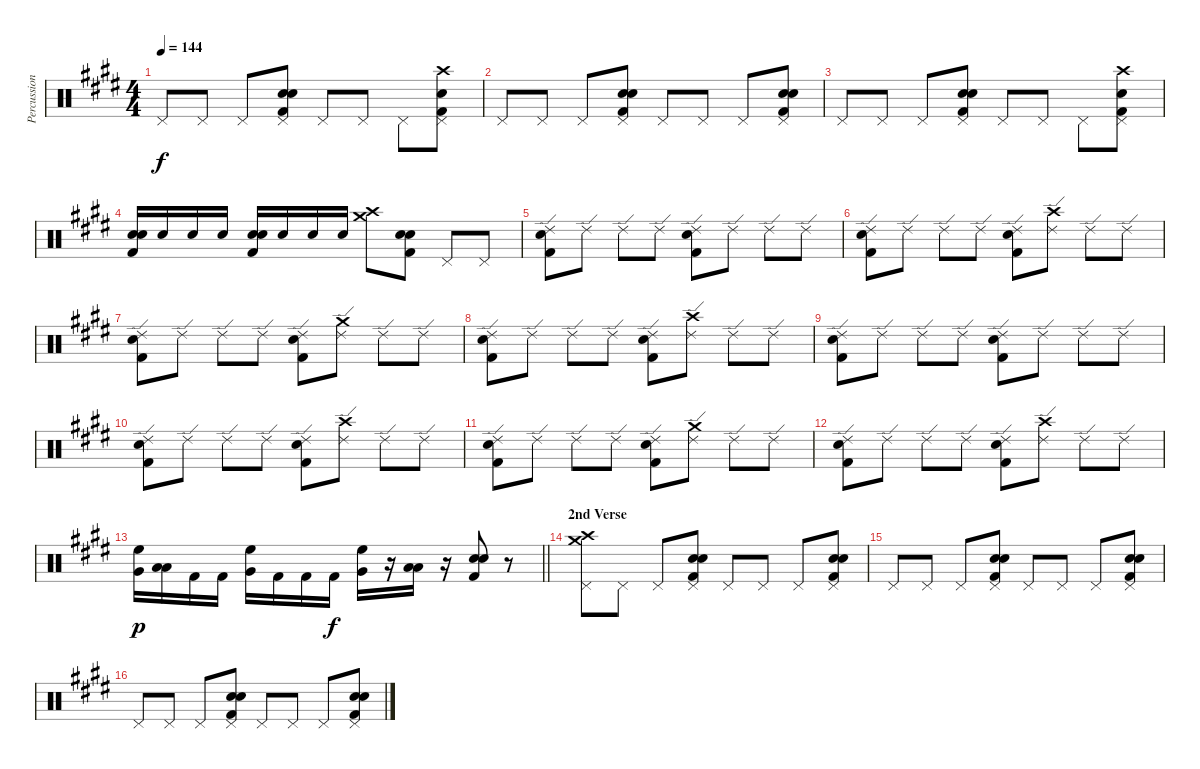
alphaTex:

\track ("Percussion" "Percussion") {instrument percussion}
\staff {score}
\articulation defaults
\ts (4 4)
\tempo 144
\clef neutral
\ks c#minor "Pedal Hi-Hat (hit)".8{dy f} "Pedal Hi-Hat (hit)".8 "Pedal Hi-Hat (hit)".8
("Pedal Hi-Hat (hit)" "Snare (hit) 2" "Snare (hit) 2" "Kick (hit) 2").8 "Pedal Hi-Hat (hit)".8 "Pedal Hi-Hat (hit)".8 "Pedal Hi-Hat (hit)".8 ("Pedal Hi-Hat (hit)" "Snare (hit) 2" "Crash high (hit)" "Kick (hit) 2").8 |
\ks e "Pedal Hi-Hat (hit)".8 "Pedal Hi-Hat (hit)".8 "Pedal Hi-Hat (hit)".8
("Pedal Hi-Hat (hit)" "Snare (hit) 2" "Snare (hit) 2" "Kick (hit) 2").8 "Pedal Hi-Hat (hit)".8 "Pedal Hi-Hat (hit)".8 "Pedal Hi-Hat (hit)".8 ("Pedal Hi-Hat (hit)" "Snare (hit) 2" "Snare (hit) 2" "Kick (hit) 2").8 |
\ks c#minor "Pedal Hi-Hat (hit)".8 "Pedal Hi-Hat (hit)".8 "Pedal Hi-Hat (hit)".8
("Pedal Hi-Hat (hit)" "Snare (hit) 2" "Snare (hit) 2" "Kick (hit) 2").8 "Pedal Hi-Hat (hit)".8 "Pedal Hi-Hat (hit)".8 "Pedal Hi-Hat (hit)".8 ("Pedal Hi-Hat (hit)" "Snare (hit) 2" "Crash high (hit)" "Kick (hit) 2").8 |
("Snare (hit) 2" "Snare (hit) 2" "Kick (hit) 2").16 "Snare (hit) 2".16 "Snare (hit) 2".16 "Snare (hit) 2".16 ("Snare (hit) 2" "Snare (hit) 2" "Kick (hit) 2").16 "Snare (hit) 2".16 "Snare (hit) 2".16 "Snare (hit) 2".16 ("Crash high (hit)" "Crash medium (hit)").8 ("Snare (hit) 2" "Snare (hit) 2" "Kick (hit) 2").8 "Pedal Hi-Hat (hit)".8 "Pedal Hi-Hat (hit)".8 |
\ks e
("Ride (edge) 2" "Snare (hit) 2" "Kick (hit) 2").8 "Ride (edge) 2".8 "Ride (edge) 2".8 "Ride (edge) 2".8 ("Ride (edge) 2" "Snare (hit) 2" "Kick (hit) 2").8 "Ride (edge) 2".8 "Ride (edge) 2".8 "Ride (edge) 2".8 |
\ks c#minor
("Ride (edge) 2" "Snare (hit) 2" "Kick (hit) 2").8 "Ride (edge) 2".8 "Ride (edge) 2".8 "Ride (edge) 2".8 ("Ride (edge) 2" "Snare (hit) 2" "Kick (hit) 2").8 ("Ride (edge) 2" "Crash high (hit)").8 "Ride (edge) 2".8 "Ride (edge) 2".8 |
("Ride (edge) 2" "Snare (hit) 2" "Kick (hit) 2").8 "Ride (edge) 2".8 "Ride (edge) 2".8 "Ride (edge) 2".8 ("Ride (edge) 2" "Snare (hit) 2" "Kick (hit) 2").8 ("Ride (edge) 2" "Crash medium (hit)").8 "Ride (edge) 2".8 "Ride (edge) 2".8 |
("Ride (edge) 2" "Snare (hit) 2" "Kick (hit) 2").8 "Ride (edge) 2".8 "Ride (edge) 2".8 "Ride (edge) 2".8 ("Ride (edge) 2" "Snare (hit) 2" "Kick (hit) 2").8 ("Ride (edge) 2" "Crash high (hit)").8 "Ride (edge) 2".8 "Ride (edge) 2".8 |
\ks e
("Ride (edge) 2" "Snare (hit) 2" "Kick (hit) 2").8 "Ride (edge) 2".8 "Ride (edge) 2".8 "Ride (edge) 2".8 ("Ride (edge) 2" "Snare (hit) 2" "Kick (hit) 2").8 "Ride (edge) 2".8 "Ride (edge) 2".8 "Ride (edge) 2".8 |
\ks c#minor
("Ride (edge) 2" "Snare (hit) 2" "Kick (hit) 2").8 "Ride (edge) 2".8 "Ride (edge) 2".8 "Ride (edge) 2".8 ("Ride (edge) 2" "Snare (hit) 2" "Kick (hit) 2").8 ("Ride (edge) 2" "Crash high (hit)").8 "Ride (edge) 2".8 "Ride (edge) 2".8 |
("Ride (edge) 2" "Snare (hit) 2" "Kick (hit) 2").8 "Ride (edge) 2".8 "Ride (edge) 2".8 "Ride (edge) 2".8 ("Ride (edge) 2" "Snare (hit) 2" "Kick (hit) 2").8 ("Ride (edge) 2" "Crash medium (hit)").8 "Ride (edge) 2".8 "Ride (edge) 2".8 |
("Ride (edge) 2" "Snare (hit) 2" "Kick (hit) 2").8 "Ride (edge) 2".8 "Ride (edge) 2".8 "Ride (edge) 2".8 ("Ride (edge) 2" "Snare (hit) 2" "Kick (hit) 2").8 ("Ride (edge) 2" "Crash high (hit)").8 "Ride (edge) 2".8 "Ride (edge) 2".8 |
\barLineRight lightlight
("Very Low Tom (hit)" "High Floor Tom (hit)").16{dy p} ("Low Floor Tom (hit)" "Low Tom (hit)").16 "Kick (hit) 2".16 "Kick (hit) 2".16 ("Very Low Tom (hit)" "High Floor Tom (hit)").16 "Kick (hit) 2".16 "Kick (hit) 2".16 "Kick (hit) 2".16{dy f} ("Very Low Tom (hit)" "High Floor Tom (hit)").16 r.16 ("Low Floor Tom (hit)" "Low Tom (hit)").16 r.16 ("Snare (hit) 2" "Snare (hit) 2" "Kick (hit) 2").8 r.8 |
\section ("" "2nd Verse")
("Pedal Hi-Hat (hit)" "Crash high (hit)" "Crash medium (hit)").8 "Pedal Hi-Hat (hit)".8 "Pedal Hi-Hat (hit)".8 ("Pedal Hi-Hat (hit)" "Snare (hit) 2" "Snare (hit) 2" "Kick (hit) 2").8 "Pedal Hi-Hat (hit)".8 "Pedal Hi-Hat (hit)".8 "Pedal Hi-Hat (hit)".8 ("Pedal Hi-Hat (hit)" "Snare (hit) 2" "Snare (hit) 2" "Kick (hit) 2").8 |
\ks e "Pedal Hi-Hat (hit)".8 "Pedal Hi-Hat (hit)".8 "Pedal Hi-Hat (hit)".8
("Pedal Hi-Hat (hit)" "Snare (hit) 2" "Snare (hit) 2" "Kick (hit) 2").8 "Pedal Hi-Hat (hit)".8 "Pedal Hi-Hat (hit)".8 "Pedal Hi-Hat (hit)".8 ("Pedal Hi-Hat (hit)" "Snare (hit) 2" "Snare (hit) 2" "Kick (hit) 2").8 |
\ks c#minor "Pedal Hi-Hat (hit)".8 "Pedal Hi-Hat (hit)".8 "Pedal Hi-Hat (hit)".8
("Pedal Hi-Hat (hit)" "Snare (hit) 2" "Snare (hit) 2" "Kick (hit) 2").8 "Pedal Hi-Hat (hit)".8 "Pedal Hi-Hat (hit)".8 "Pedal Hi-Hat (hit)".8 ("Pedal Hi-Hat (hit)" "Snare (hit) 2" "Snare (hit) 2" "Kick (hit) 2").8
